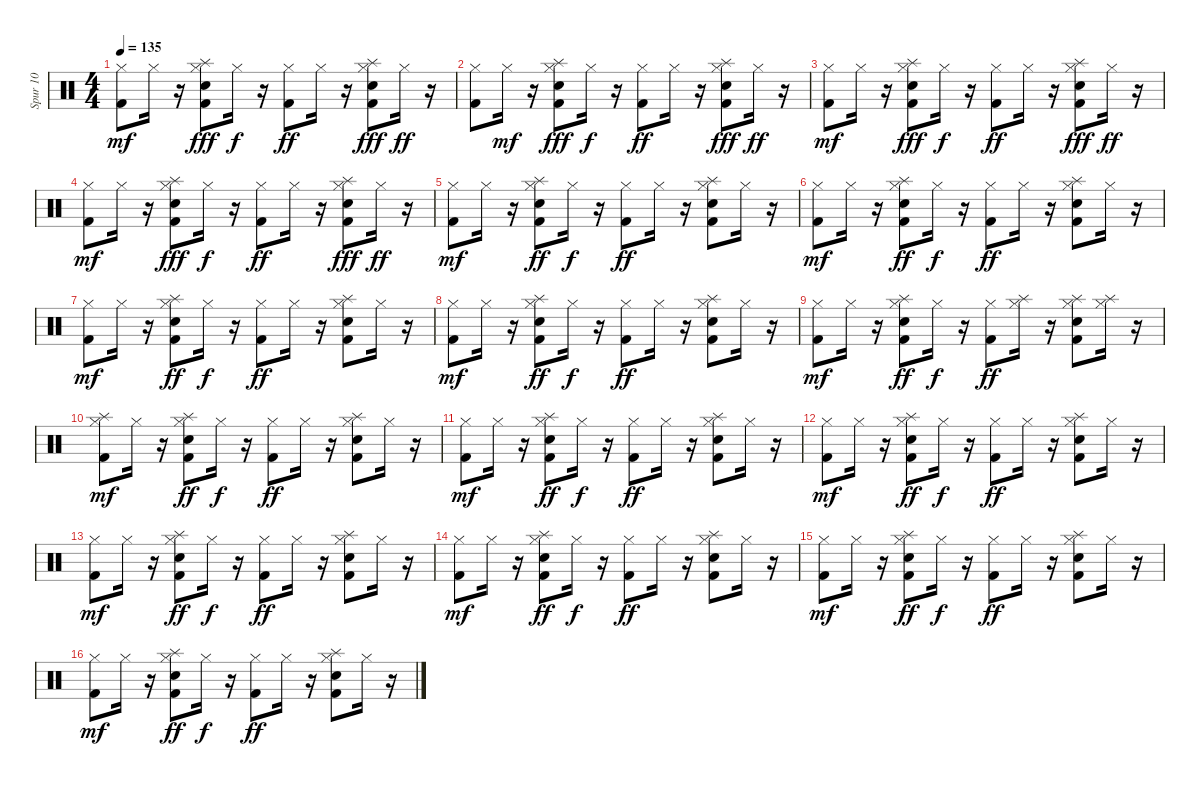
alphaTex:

\track ("Spur 10" "Spur 10") {instrument percussion}
\staff {score}
\articulation defaults
\ts (4 4)
\tempo 135
\clef neutral
\ks c
("Kick (hit) 2" "Hi-Hat (closed)").8{dy mf} "Hi-Hat (closed)".16 r.16 ("Kick (hit) 2" "Hi-Hat (closed)" "Splash (hit)" "Snare (hit) 2").8{dy fff} "Hi-Hat (closed)".16{dy f} r.16 ("Kick (hit) 2" "Hi-Hat (closed)").8{dy ff} "Hi-Hat (closed)".16 r.16 ("Kick (hit) 2" "Hi-Hat (closed)" "Splash (hit)" "Snare (hit) 2").8{dy fff} "Hi-Hat (closed)".16{dy ff} r.16 |
("Hi-Hat (closed)" "Kick (hit) 2").8 "Hi-Hat (closed)".16{dy mf} r.16 ("Kick (hit) 2" "Hi-Hat (closed)" "Splash (hit)" "Snare (hit) 2").8{dy fff} "Hi-Hat (closed)".16{dy f} r.16 ("Hi-Hat (closed)" "Kick (hit) 2").8{dy ff} "Hi-Hat (closed)".16 r.16 ("Hi-Hat (closed)" "Kick (hit) 2" "Splash (hit)" "Snare (hit) 2").8{dy fff} "Hi-Hat (closed)".16{dy ff} r.16 |
("Kick (hit) 2" "Hi-Hat (closed)").8{dy mf} "Hi-Hat (closed)".16 r.16 ("Kick (hit) 2" "Hi-Hat (closed)" "Splash (hit)" "Snare (hit) 2").8{dy fff} "Hi-Hat (closed)".16{dy f} r.16 ("Kick (hit) 2" "Hi-Hat (closed)").8{dy ff} "Hi-Hat (closed)".16 r.16 ("Kick (hit) 2" "Hi-Hat (closed)" "Splash (hit)" "Snare (hit) 2").8{dy fff} "Hi-Hat (closed)".16{dy ff} r.16 |
("Kick (hit) 2" "Hi-Hat (closed)").8{dy mf} "Hi-Hat (closed)".16 r.16 ("Kick (hit) 2" "Hi-Hat (closed)" "Snare (hit) 2" "Splash (hit)").8{dy fff} "Hi-Hat (closed)".16{dy f} r.16 ("Kick (hit) 2" "Hi-Hat (closed)").8{dy ff} "Hi-Hat (closed)".16 r.16 ("Kick (hit) 2" "Hi-Hat (closed)" "Snare (hit) 2" "Splash (hit)").8{dy fff} "Hi-Hat (closed)".16{dy ff} r.16 |
("Kick (hit) 2" "Hi-Hat (closed)").8{dy mf} "Hi-Hat (closed)".16 r.16 ("Splash (hit)" "Snare (hit) 2" "Kick (hit) 2" "Hi-Hat (closed)").8{dy ff} "Hi-Hat (closed)".16{dy f} r.16 ("Kick (hit) 2" "Hi-Hat (closed)").8{dy ff} "Hi-Hat (closed)".16 r.16 ("Splash (hit)" "Snare (hit) 2" "Kick (hit) 2" "Hi-Hat (closed)").8 "Hi-Hat (closed)".16 r.16 |
("Kick (hit) 2" "Hi-Hat (closed)").8{dy mf} "Hi-Hat (closed)".16 r.16 ("Splash (hit)" "Snare (hit) 2" "Kick (hit) 2" "Hi-Hat (closed)").8{dy ff} "Hi-Hat (closed)".16{dy f} r.16 ("Kick (hit) 2" "Hi-Hat (closed)").8{dy ff} "Hi-Hat (closed)".16 r.16 ("Splash (hit)" "Snare (hit) 2" "Kick (hit) 2" "Hi-Hat (closed)").8 "Hi-Hat (closed)".16 r.16 |
("Kick (hit) 2" "Hi-Hat (closed)").8{dy mf} "Hi-Hat (closed)".16 r.16 ("Splash (hit)" "Snare (hit) 2" "Kick (hit) 2" "Hi-Hat (closed)").8{dy ff} "Hi-Hat (closed)".16{dy f} r.16 ("Kick (hit) 2" "Hi-Hat (closed)").8{dy ff} "Hi-Hat (closed)".16 r.16 ("Splash (hit)" "Snare (hit) 2" "Kick (hit) 2" "Hi-Hat (closed)").8 "Hi-Hat (closed)".16 r.16 |
("Kick (hit) 2" "Hi-Hat (closed)").8{dy mf} "Hi-Hat (closed)".16 r.16 ("Splash (hit)" "Snare (hit) 2" "Kick (hit) 2" "Hi-Hat (closed)").8{dy ff} "Hi-Hat (closed)".16{dy f} r.16 ("Kick (hit) 2" "Hi-Hat (closed)").8{dy ff} "Hi-Hat (closed)".16 r.16 ("Splash (hit)" "Snare (hit) 2" "Kick (hit) 2" "Hi-Hat (closed)").8 "Hi-Hat (closed)".16 r.16 |
("Kick (hit) 2" "Hi-Hat (closed)").8{dy mf} "Hi-Hat (closed)".16 r.16 ("Splash (hit)" "Snare (hit) 2" "Kick (hit) 2" "Hi-Hat (closed)").8{dy ff} "Hi-Hat (closed)".16{dy f} r.16 ("Kick (hit) 2" "Hi-Hat (closed)").8{dy ff} ("Splash (hit)" "Hi-Hat (closed)").16 r.16 ("Splash (hit)" "Snare (hit) 2" "Kick (hit) 2" "Hi-Hat (closed)").8 ("Splash (hit)" "Hi-Hat (closed)").16 r.16 |
("Splash (hit)" "Kick (hit) 2" "Hi-Hat (closed)").8{dy mf} "Hi-Hat (closed)".16 r.16 ("Splash (hit)" "Snare (hit) 2" "Kick (hit) 2" "Hi-Hat (closed)").8{dy ff} "Hi-Hat (closed)".16{dy f} r.16 ("Kick (hit) 2" "Hi-Hat (closed)").8{dy ff} "Hi-Hat (closed)".16 r.16 ("Splash (hit)" "Snare (hit) 2" "Kick (hit) 2" "Hi-Hat (closed)").8 "Hi-Hat (closed)".16 r.16 |
("Kick (hit) 2" "Hi-Hat (closed)").8{dy mf} "Hi-Hat (closed)".16 r.16 ("Splash (hit)" "Snare (hit) 2" "Kick (hit) 2" "Hi-Hat (closed)").8{dy ff} "Hi-Hat (closed)".16{dy f} r.16 ("Kick (hit) 2" "Hi-Hat (closed)").8{dy ff} "Hi-Hat (closed)".16 r.16 ("Splash (hit)" "Snare (hit) 2" "Kick (hit) 2" "Hi-Hat (closed)").8 "Hi-Hat (closed)".16 r.16 |
("Kick (hit) 2" "Hi-Hat (closed)").8{dy mf} "Hi-Hat (closed)".16 r.16 ("Splash (hit)" "Snare (hit) 2" "Kick (hit) 2" "Hi-Hat (closed)").8{dy ff} "Hi-Hat (closed)".16{dy f} r.16 ("Kick (hit) 2" "Hi-Hat (closed)").8{dy ff} "Hi-Hat (closed)".16 r.16 ("Splash (hit)" "Snare (hit) 2" "Kick (hit) 2" "Hi-Hat (closed)").8 "Hi-Hat (closed)".16 r.16 |
("Kick (hit) 2" "Hi-Hat (closed)").8{dy mf} "Hi-Hat (closed)".16 r.16 ("Splash (hit)" "Snare (hit) 2" "Kick (hit) 2" "Hi-Hat (closed)").8{dy ff} "Hi-Hat (closed)".16{dy f} r.16 ("Kick (hit) 2" "Hi-Hat (closed)").8{dy ff} "Hi-Hat (closed)".16 r.16 ("Splash (hit)" "Snare (hit) 2" "Kick (hit) 2" "Hi-Hat (closed)").8 "Hi-Hat (closed)".16 r.16 |
("Kick (hit) 2" "Hi-Hat (closed)").8{dy mf} "Hi-Hat (closed)".16 r.16 ("Splash (hit)" "Snare (hit) 2" "Kick (hit) 2" "Hi-Hat (closed)").8{dy ff} "Hi-Hat (closed)".16{dy f} r.16 ("Kick (hit) 2" "Hi-Hat (closed)").8{dy ff} "Hi-Hat (closed)".16 r.16 ("Splash (hit)" "Snare (hit) 2" "Kick (hit) 2" "Hi-Hat (closed)").8 "Hi-Hat (closed)".16 r.16 |
("Kick (hit) 2" "Hi-Hat (closed)").8{dy mf} "Hi-Hat (closed)".16 r.16 ("Splash (hit)" "Snare (hit) 2" "Kick (hit) 2" "Hi-Hat (closed)").8{dy ff} "Hi-Hat (closed)".16{dy f} r.16 ("Kick (hit) 2" "Hi-Hat (closed)").8{dy ff} "Hi-Hat (closed)".16 r.16 ("Splash (hit)" "Snare (hit) 2" "Kick (hit) 2" "Hi-Hat (closed)").8 "Hi-Hat (closed)".16 r.16 |
("Kick (hit) 2" "Hi-Hat (closed)").8{dy mf} "Hi-Hat (closed)".16 r.16 ("Splash (hit)" "Snare (hit) 2" "Kick (hit) 2" "Hi-Hat (closed)").8{dy ff} "Hi-Hat (closed)".16{dy f} r.16 ("Kick (hit) 2" "Hi-Hat (closed)").8{dy ff} "Hi-Hat (closed)".16 r.16 ("Splash (hit)" "Snare (hit) 2" "Kick (hit) 2" "Hi-Hat (closed)").8 "Hi-Hat (closed)".16 r.16
